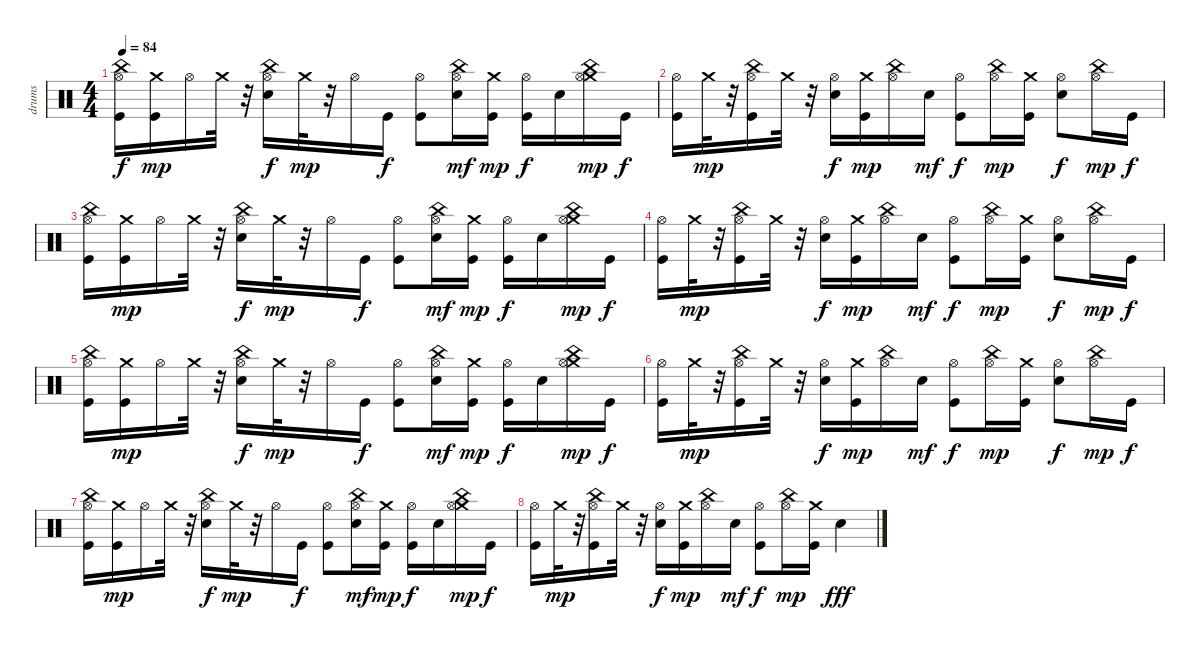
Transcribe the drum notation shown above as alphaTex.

\track ("drums" "drums") {instrument percussion}
\staff {score}
\articulation defaults
\ts (4 4)
\tempo 84
\clef neutral
\ks c
("China (hit)" "Hi-Hat (open)" "Kick (hit)").16{dy f} ("Crash medium (hit)" "Kick (hit)").16{dy mp} "Hi-Hat (open)".16 "Crash medium (hit)".32 r.32 ("China (hit)" "Hi-Hat (open)" "Electric Snare (hit)").16{dy f} "Crash medium (hit)".32{dy mp} r.32 "Hi-Hat (open)".16 "Kick (hit)".16{dy f} ("Hi-Hat (open)" "Kick (hit)").8 ("China (hit)" "Hi-Hat (open)" "Electric Snare (hit)").16{dy mf} ("Crash medium (hit)" "Kick (hit)").16{dy mp} ("Hi-Hat (open)" "Kick (hit)").16{dy f} "Electric Snare (hit)".16 ("China (hit)" "Crash medium (hit)" "Hi-Hat (open)").16{dy mp} "Kick (hit)".16{dy f} |
("Hi-Hat (open)" "Kick (hit)").16 "Crash medium (hit)".32{dy mp} r.32 ("China (hit)" "Hi-Hat (open)" "Kick (hit)").16 "Crash medium (hit)".32 r.32 ("Electric Snare (hit)" "Hi-Hat (open)").16{dy f} ("Crash medium (hit)" "Kick (hit)").16{dy mp} ("China (hit)" "Hi-Hat (open)").16 "Electric Snare (hit)".16{dy mf} ("Kick (hit)" "Hi-Hat (open)").8{dy f} ("China (hit)" "Hi-Hat (open)").16{dy mp} ("Crash medium (hit)" "Kick (hit)").16 ("Electric Snare (hit)" "Hi-Hat (open)").8{dy f} ("China (hit)" "Hi-Hat (open)").16{dy mp} "Kick (hit)".16{dy f} |
("China (hit)" "Hi-Hat (open)" "Kick (hit)").16 ("Crash medium (hit)" "Kick (hit)").16{dy mp} "Hi-Hat (open)".16 "Crash medium (hit)".32 r.32 ("China (hit)" "Hi-Hat (open)" "Electric Snare (hit)").16{dy f} "Crash medium (hit)".32{dy mp} r.32 "Hi-Hat (open)".16 "Kick (hit)".16{dy f} ("Hi-Hat (open)" "Kick (hit)").8 ("China (hit)" "Hi-Hat (open)" "Electric Snare (hit)").16{dy mf} ("Crash medium (hit)" "Kick (hit)").16{dy mp} ("Hi-Hat (open)" "Kick (hit)").16{dy f} "Electric Snare (hit)".16 ("China (hit)" "Crash medium (hit)" "Hi-Hat (open)").16{dy mp} "Kick (hit)".16{dy f} |
("Hi-Hat (open)" "Kick (hit)").16 "Crash medium (hit)".32{dy mp} r.32 ("China (hit)" "Hi-Hat (open)" "Kick (hit)").16 "Crash medium (hit)".32 r.32 ("Electric Snare (hit)" "Hi-Hat (open)").16{dy f} ("Crash medium (hit)" "Kick (hit)").16{dy mp} ("China (hit)" "Hi-Hat (open)").16 "Electric Snare (hit)".16{dy mf} ("Kick (hit)" "Hi-Hat (open)").8{dy f} ("China (hit)" "Hi-Hat (open)").16{dy mp} ("Crash medium (hit)" "Kick (hit)").16 ("Electric Snare (hit)" "Hi-Hat (open)").8{dy f} ("China (hit)" "Hi-Hat (open)").16{dy mp} "Kick (hit)".16{dy f} |
("China (hit)" "Hi-Hat (open)" "Kick (hit)").16 ("Crash medium (hit)" "Kick (hit)").16{dy mp} "Hi-Hat (open)".16 "Crash medium (hit)".32 r.32 ("China (hit)" "Hi-Hat (open)" "Electric Snare (hit)").16{dy f} "Crash medium (hit)".32{dy mp} r.32 "Hi-Hat (open)".16 "Kick (hit)".16{dy f} ("Hi-Hat (open)" "Kick (hit)").8 ("China (hit)" "Hi-Hat (open)" "Electric Snare (hit)").16{dy mf} ("Crash medium (hit)" "Kick (hit)").16{dy mp} ("Hi-Hat (open)" "Kick (hit)").16{dy f} "Electric Snare (hit)".16 ("China (hit)" "Crash medium (hit)" "Hi-Hat (open)").16{dy mp} "Kick (hit)".16{dy f} |
("Hi-Hat (open)" "Kick (hit)").16 "Crash medium (hit)".32{dy mp} r.32 ("China (hit)" "Hi-Hat (open)" "Kick (hit)").16 "Crash medium (hit)".32 r.32 ("Electric Snare (hit)" "Hi-Hat (open)").16{dy f} ("Crash medium (hit)" "Kick (hit)").16{dy mp} ("China (hit)" "Hi-Hat (open)").16 "Electric Snare (hit)".16{dy mf} ("Kick (hit)" "Hi-Hat (open)").8{dy f} ("China (hit)" "Hi-Hat (open)").16{dy mp} ("Crash medium (hit)" "Kick (hit)").16 ("Electric Snare (hit)" "Hi-Hat (open)").8{dy f} ("China (hit)" "Hi-Hat (open)").16{dy mp} "Kick (hit)".16{dy f} |
("China (hit)" "Hi-Hat (open)" "Kick (hit)").16 ("Crash medium (hit)" "Kick (hit)").16{dy mp} "Hi-Hat (open)".16 "Crash medium (hit)".32 r.32 ("China (hit)" "Hi-Hat (open)" "Electric Snare (hit)").16{dy f} "Crash medium (hit)".32{dy mp} r.32 "Hi-Hat (open)".16 "Kick (hit)".16{dy f} ("Hi-Hat (open)" "Kick (hit)").8 ("China (hit)" "Hi-Hat (open)" "Electric Snare (hit)").16{dy mf} ("Crash medium (hit)" "Kick (hit)").16{dy mp} ("Hi-Hat (open)" "Kick (hit)").16{dy f} "Electric Snare (hit)".16 ("China (hit)" "Crash medium (hit)" "Hi-Hat (open)").16{dy mp} "Kick (hit)".16{dy f} |
("Hi-Hat (open)" "Kick (hit)").16 "Crash medium (hit)".32{dy mp} r.32 ("China (hit)" "Hi-Hat (open)" "Kick (hit)").16 "Crash medium (hit)".32 r.32 ("Electric Snare (hit)" "Hi-Hat (open)").16{dy f} ("Crash medium (hit)" "Kick (hit)").16{dy mp} ("China (hit)" "Hi-Hat (open)").16 "Electric Snare (hit)".16{dy mf} ("Kick (hit)" "Hi-Hat (open)").8{dy f} ("China (hit)" "Hi-Hat (open)").16{dy mp} ("Crash medium (hit)" "Kick (hit)").16 "Electric Snare (hit)".4{dy fff}
